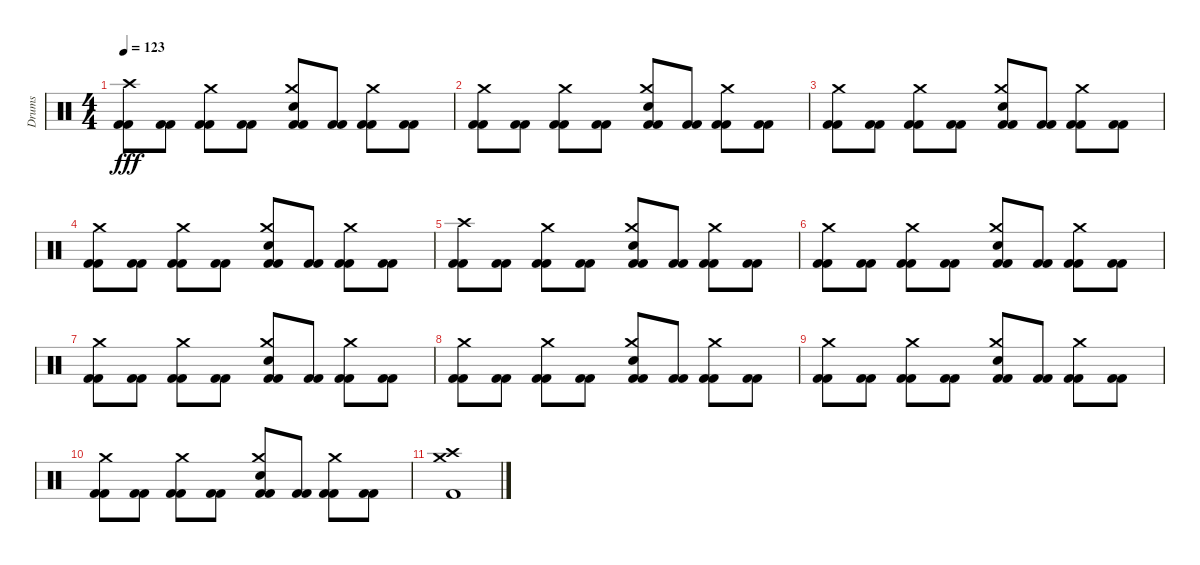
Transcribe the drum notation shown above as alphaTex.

\track ("Drums" "Drums") {instrument percussion}
\staff {score}
\articulation defaults
\ts (4 4)
\tempo 123
\clef neutral
\ks c
("Crash high (hit)" "Kick (hit) 2" "Kick (hit) 2").8{dy fff} ("Kick (hit) 2" "Kick (hit) 2").8 ("Crash medium (hit)" "Kick (hit) 2" "Kick (hit) 2").8 ("Kick (hit) 2" "Kick (hit) 2").8 ("Crash medium (hit)" "Electric Snare (hit)" "Kick (hit) 2" "Kick (hit) 2").8 ("Kick (hit) 2" "Kick (hit) 2").8 ("Crash medium (hit)" "Kick (hit) 2" "Kick (hit) 2").8 ("Kick (hit) 2" "Kick (hit) 2").8 |
("Crash medium (hit)" "Kick (hit) 2" "Kick (hit) 2").8 ("Kick (hit) 2" "Kick (hit) 2").8 ("Crash medium (hit)" "Kick (hit) 2" "Kick (hit) 2").8 ("Kick (hit) 2" "Kick (hit) 2").8 ("Crash medium (hit)" "Electric Snare (hit)" "Kick (hit) 2" "Kick (hit) 2").8 ("Kick (hit) 2" "Kick (hit) 2").8 ("Crash medium (hit)" "Kick (hit) 2" "Kick (hit) 2").8 ("Kick (hit) 2" "Kick (hit) 2").8 |
("Crash medium (hit)" "Kick (hit) 2" "Kick (hit) 2").8 ("Kick (hit) 2" "Kick (hit) 2").8 ("Crash medium (hit)" "Kick (hit) 2" "Kick (hit) 2").8 ("Kick (hit) 2" "Kick (hit) 2").8 ("Crash medium (hit)" "Electric Snare (hit)" "Kick (hit) 2" "Kick (hit) 2").8 ("Kick (hit) 2" "Kick (hit) 2").8 ("Crash medium (hit)" "Kick (hit) 2" "Kick (hit) 2").8 ("Kick (hit) 2" "Kick (hit) 2").8 |
("Crash medium (hit)" "Kick (hit) 2" "Kick (hit) 2").8 ("Kick (hit) 2" "Kick (hit) 2").8 ("Crash medium (hit)" "Kick (hit) 2" "Kick (hit) 2").8 ("Kick (hit) 2" "Kick (hit) 2").8 ("Crash medium (hit)" "Electric Snare (hit)" "Kick (hit) 2" "Kick (hit) 2").8 ("Kick (hit) 2" "Kick (hit) 2").8 ("Crash medium (hit)" "Kick (hit) 2" "Kick (hit) 2").8 ("Kick (hit) 2" "Kick (hit) 2").8 |
("Crash high (hit)" "Kick (hit) 2" "Kick (hit) 2").8 ("Kick (hit) 2" "Kick (hit) 2").8 ("Crash medium (hit)" "Kick (hit) 2" "Kick (hit) 2").8 ("Kick (hit) 2" "Kick (hit) 2").8 ("Crash medium (hit)" "Electric Snare (hit)" "Kick (hit) 2" "Kick (hit) 2").8 ("Kick (hit) 2" "Kick (hit) 2").8 ("Crash medium (hit)" "Kick (hit) 2" "Kick (hit) 2").8 ("Kick (hit) 2" "Kick (hit) 2").8 |
("Crash medium (hit)" "Kick (hit) 2" "Kick (hit) 2").8 ("Kick (hit) 2" "Kick (hit) 2").8 ("Crash medium (hit)" "Kick (hit) 2" "Kick (hit) 2").8 ("Kick (hit) 2" "Kick (hit) 2").8 ("Crash medium (hit)" "Electric Snare (hit)" "Kick (hit) 2" "Kick (hit) 2").8 ("Kick (hit) 2" "Kick (hit) 2").8 ("Crash medium (hit)" "Kick (hit) 2" "Kick (hit) 2").8 ("Kick (hit) 2" "Kick (hit) 2").8 |
("Crash medium (hit)" "Kick (hit) 2" "Kick (hit) 2").8 ("Kick (hit) 2" "Kick (hit) 2").8 ("Crash medium (hit)" "Kick (hit) 2" "Kick (hit) 2").8 ("Kick (hit) 2" "Kick (hit) 2").8 ("Crash medium (hit)" "Electric Snare (hit)" "Kick (hit) 2" "Kick (hit) 2").8 ("Kick (hit) 2" "Kick (hit) 2").8 ("Crash medium (hit)" "Kick (hit) 2" "Kick (hit) 2").8 ("Kick (hit) 2" "Kick (hit) 2").8 |
("Crash medium (hit)" "Kick (hit) 2" "Kick (hit) 2").8 ("Kick (hit) 2" "Kick (hit) 2").8 ("Crash medium (hit)" "Kick (hit) 2" "Kick (hit) 2").8 ("Kick (hit) 2" "Kick (hit) 2").8 ("Crash medium (hit)" "Electric Snare (hit)" "Kick (hit) 2" "Kick (hit) 2").8 ("Kick (hit) 2" "Kick (hit) 2").8 ("Crash medium (hit)" "Kick (hit) 2" "Kick (hit) 2").8 ("Kick (hit) 2" "Kick (hit) 2").8 |
("Crash medium (hit)" "Kick (hit) 2" "Kick (hit) 2").8 ("Kick (hit) 2" "Kick (hit) 2").8 ("Crash medium (hit)" "Kick (hit) 2" "Kick (hit) 2").8 ("Kick (hit) 2" "Kick (hit) 2").8 ("Crash medium (hit)" "Electric Snare (hit)" "Kick (hit) 2" "Kick (hit) 2").8 ("Kick (hit) 2" "Kick (hit) 2").8 ("Crash medium (hit)" "Kick (hit) 2" "Kick (hit) 2").8 ("Kick (hit) 2" "Kick (hit) 2").8 |
("Crash medium (hit)" "Kick (hit) 2" "Kick (hit) 2").8 ("Kick (hit) 2" "Kick (hit) 2").8 ("Crash medium (hit)" "Kick (hit) 2" "Kick (hit) 2").8 ("Kick (hit) 2" "Kick (hit) 2").8 ("Crash medium (hit)" "Electric Snare (hit)" "Kick (hit) 2" "Kick (hit) 2").8 ("Kick (hit) 2" "Kick (hit) 2").8 ("Crash medium (hit)" "Kick (hit) 2" "Kick (hit) 2").8 ("Kick (hit) 2" "Kick (hit) 2").8 |
("Crash high (hit)" "Crash medium (hit)" "Kick (hit) 2").1
